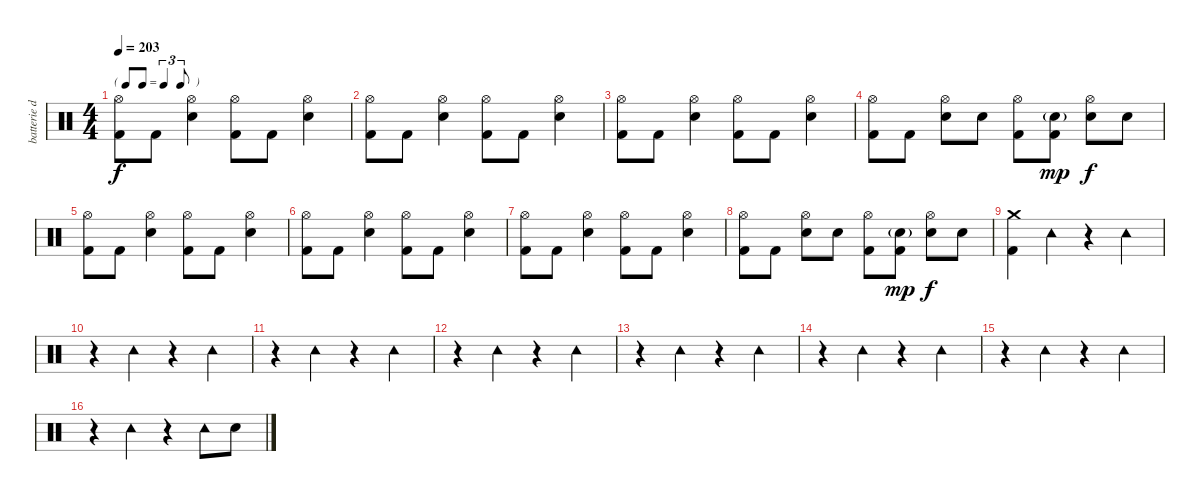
\track ("batterie dub" "batterie d") {instrument percussion}
\staff {score}
\articulation defaults
\ts (4 4)
\tf triplet8th
\tempo 203
\clef neutral
\ks c
("Hi-Hat (open)" "Kick (hit) 2").8{dy f} "Kick (hit) 2".8 ("Hi-Hat (open)" "Electric Snare (hit)").4 ("Hi-Hat (open)" "Kick (hit) 2").8 "Kick (hit) 2".8 ("Hi-Hat (open)" "Electric Snare (hit)").4 |
("Hi-Hat (open)" "Kick (hit) 2").8 "Kick (hit) 2".8 ("Hi-Hat (open)" "Electric Snare (hit)").4 ("Hi-Hat (open)" "Kick (hit) 2").8 "Kick (hit) 2".8 ("Hi-Hat (open)" "Electric Snare (hit)").4 |
("Hi-Hat (open)" "Kick (hit) 2").8 "Kick (hit) 2".8 ("Hi-Hat (open)" "Electric Snare (hit)").4 ("Hi-Hat (open)" "Kick (hit) 2").8 "Kick (hit) 2".8 ("Hi-Hat (open)" "Electric Snare (hit)").4 |
("Hi-Hat (open)" "Kick (hit) 2").8 "Kick (hit) 2".8 ("Hi-Hat (open)" "Electric Snare (hit)").8 "Electric Snare (hit)".8 ("Hi-Hat (open)" "Kick (hit) 2").8 ("Electric Snare (hit)"{g} "Kick (hit) 2").8{dy mp} ("Hi-Hat (open)" "Electric Snare (hit)").8{dy f} "Electric Snare (hit)".8 |
("Hi-Hat (open)" "Kick (hit) 2").8 "Kick (hit) 2".8 ("Hi-Hat (open)" "Electric Snare (hit)").4 ("Hi-Hat (open)" "Kick (hit) 2").8 "Kick (hit) 2".8 ("Hi-Hat (open)" "Electric Snare (hit)").4 |
("Hi-Hat (open)" "Kick (hit) 2").8 "Kick (hit) 2".8 ("Hi-Hat (open)" "Electric Snare (hit)").4 ("Hi-Hat (open)" "Kick (hit) 2").8 "Kick (hit) 2".8 ("Hi-Hat (open)" "Electric Snare (hit)").4 |
("Hi-Hat (open)" "Kick (hit) 2").8 "Kick (hit) 2".8 ("Hi-Hat (open)" "Electric Snare (hit)").4 ("Hi-Hat (open)" "Kick (hit) 2").8 "Kick (hit) 2".8 ("Hi-Hat (open)" "Electric Snare (hit)").4 |
("Hi-Hat (open)" "Kick (hit) 2").8 "Kick (hit) 2".8 ("Hi-Hat (open)" "Electric Snare (hit)").8 "Electric Snare (hit)".8 ("Hi-Hat (open)" "Kick (hit) 2").8 ("Electric Snare (hit)"{g} "Kick (hit) 2").8{dy mp} ("Hi-Hat (open)" "Electric Snare (hit)").8{dy f} "Electric Snare (hit)".8 |
("Crash medium (hit)" "Kick (hit) 2").4 "Tambourine (hit)".4 r.4 "Tambourine (hit)".4 |
r.4 "Tambourine (hit)".4 r.4 "Tambourine (hit)".4 |
r.4 "Tambourine (hit)".4 r.4 "Tambourine (hit)".4 |
r.4 "Tambourine (hit)".4 r.4 "Tambourine (hit)".4 |
r.4 "Tambourine (hit)".4 r.4 "Tambourine (hit)".4 |
r.4 "Tambourine (hit)".4 r.4 "Tambourine (hit)".4 |
r.4 "Tambourine (hit)".4 r.4 "Tambourine (hit)".4 |
r.4 "Tambourine (hit)".4 r.4 "Tambourine (hit)".8 "Electric Snare (hit)".8
